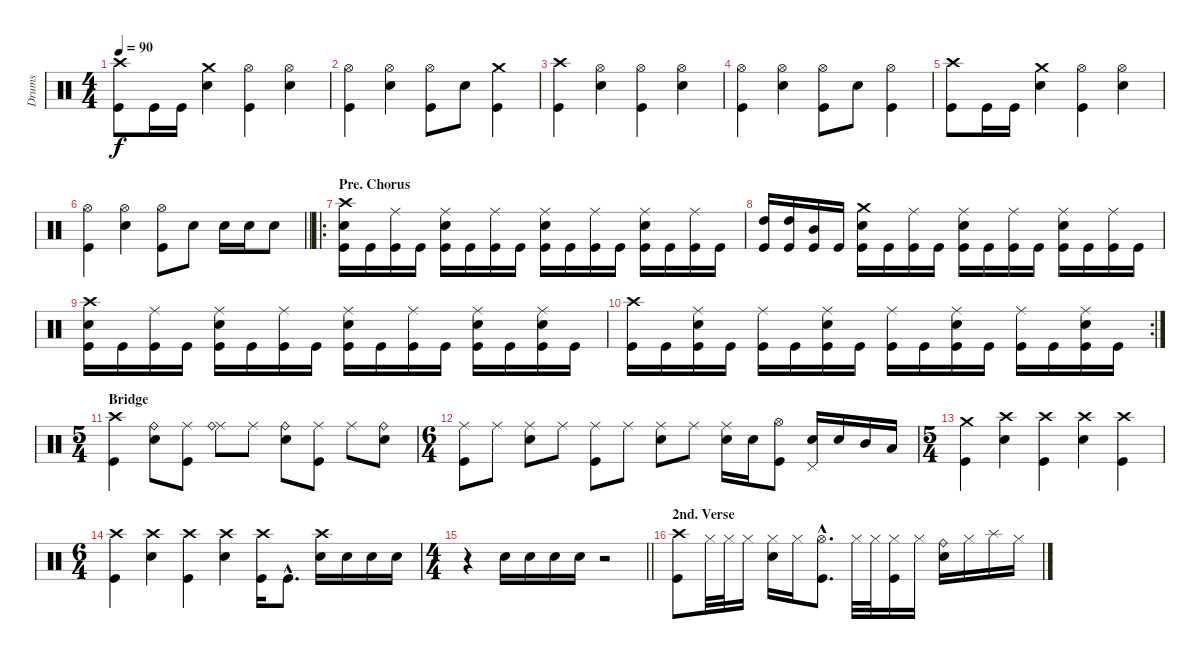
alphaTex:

\track ("Drums" "Drums") {instrument percussion}
\staff {score}
\articulation defaults
\ts (4 4)
\tempo 90
\clef neutral
\ks c
("Crash high (hit)" "Kick (hit)").8{dy f} "Kick (hit)".16 "Kick (hit)".16 ("Crash medium (hit)" "Electric Snare (hit)").4 ("Hi-Hat (open)" "Kick (hit)").4 ("Hi-Hat (open)" "Electric Snare (hit)").4 |
("Hi-Hat (open)" "Kick (hit)").4 ("Hi-Hat (open)" "Electric Snare (hit)").4 ("Hi-Hat (open)" "Kick (hit)").8 "Electric Snare (hit)".8 ("Crash medium (hit)" "Kick (hit)").4 |
("Crash high (hit)" "Kick (hit)").4 ("Hi-Hat (open)" "Electric Snare (hit)").4 ("Hi-Hat (open)" "Kick (hit)").4 ("Hi-Hat (open)" "Electric Snare (hit)").4 |
("Hi-Hat (open)" "Kick (hit)").4 ("Hi-Hat (open)" "Electric Snare (hit)").4 ("Hi-Hat (open)" "Kick (hit)").8 "Electric Snare (hit)".8 ("Hi-Hat (open)" "Kick (hit)").4 |
("Crash high (hit)" "Kick (hit)").8 "Kick (hit)".16 "Kick (hit)".16 ("Crash medium (hit)" "Electric Snare (hit)").4 ("Hi-Hat (open)" "Kick (hit)").4 ("Hi-Hat (open)" "Electric Snare (hit)").4 |
\barLineRight lightlight
("Hi-Hat (open)" "Kick (hit)").4 ("Hi-Hat (open)" "Electric Snare (hit)").4 ("Hi-Hat (open)" "Kick (hit)").8 "Electric Snare (hit)".8 "Electric Snare (hit)".16 "Electric Snare (hit)".16 "Electric Snare (hit)".8 |
\ro
\section ("" "Pre. Chorus")
("Crash high (hit)" "Electric Snare (hit)" "Kick (hit)").16 "Kick (hit)".16 ("Ride (middle)" "Kick (hit)").16 "Kick (hit)".16 ("Ride (middle)" "Electric Snare (hit)" "Kick (hit)").16 "Kick (hit)".16 ("Ride (middle)" "Kick (hit)").16 "Kick (hit)".16 ("Ride (middle)" "Electric Snare (hit)" "Kick (hit)").16 "Kick (hit)".16 ("Ride (middle)" "Kick (hit)").16 "Kick (hit)".16 ("Ride (middle)" "Electric Snare (hit)" "Kick (hit)").16 "Kick (hit)".16 ("Ride (middle)" "Kick (hit)").16 "Kick (hit)".16 |
("High Tom (hit)" "Kick (hit)").16 ("High Tom (hit)" "Kick (hit)").16 ("Mid Tom (hit)" "Kick (hit)").16 "Kick (hit)".16 ("Crash medium (hit)" "Electric Snare (hit)" "Kick (hit)").16 "Kick (hit)".16 ("Ride (middle)" "Kick (hit)").16 "Kick (hit)".16 ("Ride (middle)" "Electric Snare (hit)" "Kick (hit)").16 "Kick (hit)".16 ("Ride (middle)" "Kick (hit)").16 "Kick (hit)".16 ("Ride (middle)" "Electric Snare (hit)" "Kick (hit)").16 "Kick (hit)".16 ("Ride (middle)" "Kick (hit)").16 "Kick (hit)".16 |
("Crash high (hit)" "Electric Snare (hit)" "Kick (hit)").16 "Kick (hit)".16 ("Ride (middle)" "Kick (hit)").16 "Kick (hit)".16 ("Ride (middle)" "Electric Snare (hit)" "Kick (hit)").16 "Kick (hit)".16 ("Ride (middle)" "Kick (hit)").16 "Kick (hit)".16 ("Ride (middle)" "Electric Snare (hit)" "Kick (hit)").16 "Kick (hit)".16 ("Ride (middle)" "Kick (hit)").16 "Kick (hit)".16 ("Ride (middle)" "Electric Snare (hit)" "Kick (hit)").16 "Kick (hit)".16 ("Ride (middle)" "Electric Snare (hit)" "Kick (hit)").16 "Kick (hit)".16 |
\rc 2
("Crash high (hit)" "Kick (hit)").16 "Kick (hit)".16 ("Ride (middle)" "Electric Snare (hit)" "Kick (hit)").16 "Kick (hit)".16 ("Ride (middle)" "Kick (hit)").16 "Kick (hit)".16 ("Ride (middle)" "Electric Snare (hit)" "Kick (hit)").16 "Kick (hit)".16 ("Ride (middle)" "Kick (hit)").16 "Kick (hit)".16 ("Ride (middle)" "Electric Snare (hit)" "Kick (hit)").16 "Kick (hit)".16 ("Ride (middle)" "Kick (hit)").16 "Kick (hit)".16 ("Ride (middle)" "Electric Snare (hit)" "Kick (hit)").16 "Kick (hit)".16 |
\ts (5 4)
\section ("" "Bridge")
("Crash high (hit)" "Kick (hit)").4 ("Ride (bell)" "Electric Snare (hit)").8 ("Ride (middle)" "Kick (hit)").8 ("Ride (middle)" "Ride (bell)").8 "Ride (middle)".8 ("Ride (bell)" "Electric Snare (hit)").8 ("Ride (middle)" "Kick (hit)").8 "Ride (middle)".8 ("Ride (bell)" "Electric Snare (hit)").8 |
\ts (6 4)
("Ride (middle)" "Kick (hit)").8 "Ride (middle)".8 ("Ride (middle)" "Electric Snare (hit)").8 "Ride (middle)".8 ("Ride (middle)" "Kick (hit)").8 "Ride (middle)".8 ("Ride (middle)" "Electric Snare (hit)").8 "Ride (middle)".8 ("Ride (middle)" "Electric Snare (hit)").16 "Electric Snare (hit)".16 ("Hi-Hat (open)" "Kick (hit)").8 ("Pedal Hi-Hat (hit)" "Electric Snare (hit)").16 "Electric Snare (hit)".16 "Mid Tom (hit)".16 "Low Tom (hit)".16 |
\ts (5 4)
("Crash medium (hit)" "Kick (hit)").4 ("Crash high (hit)" "Electric Snare (hit)").4 ("Crash high (hit)" "Kick (hit)").4 ("Crash high (hit)" "Electric Snare (hit)").4 ("Crash high (hit)" "Kick (hit)").4 |
\ts (6 4)
("Crash high (hit)" "Kick (hit)").4 ("Crash high (hit)" "Electric Snare (hit)").4 ("Crash high (hit)" "Kick (hit)").4 ("Crash high (hit)" "Electric Snare (hit)").4 ("Crash high (hit)" "Kick (hit)").16 "Kick (hit)"{hac}.8{d} ("Crash high (hit)" "Electric Snare (hit)").16 "Electric Snare (hit)".16 "Electric Snare (hit)".16 "Electric Snare (hit)".16 |
\ts (4 4)
\barLineRight lightlight
r.4 "Electric Snare (hit)".16 "Electric Snare (hit)".16 "Electric Snare (hit)".16 "Electric Snare (hit)".16 r.2 |
\section ("" "2nd. Verse")
("Crash high (hit)" "Kick (hit)").8 "Hi-Hat (closed)".32 "Hi-Hat (closed)".32 "Hi-Hat (closed)".16 ("Hi-Hat (closed)" "Electric Snare (hit)").16 "Hi-Hat (closed)".16 ("Hi-Hat (open)"{hac} "Kick (hit)"{hac}).8{d} "Hi-Hat (closed)".32 "Hi-Hat (closed)".32 ("Hi-Hat (closed)" "Kick (hit)").16 "Hi-Hat (closed)".16 ("Ride (bell)" "Electric Snare (hit)").16 "Hi-Hat (closed)".16 "Splash (hit)".16 "Hi-Hat (closed)".16
